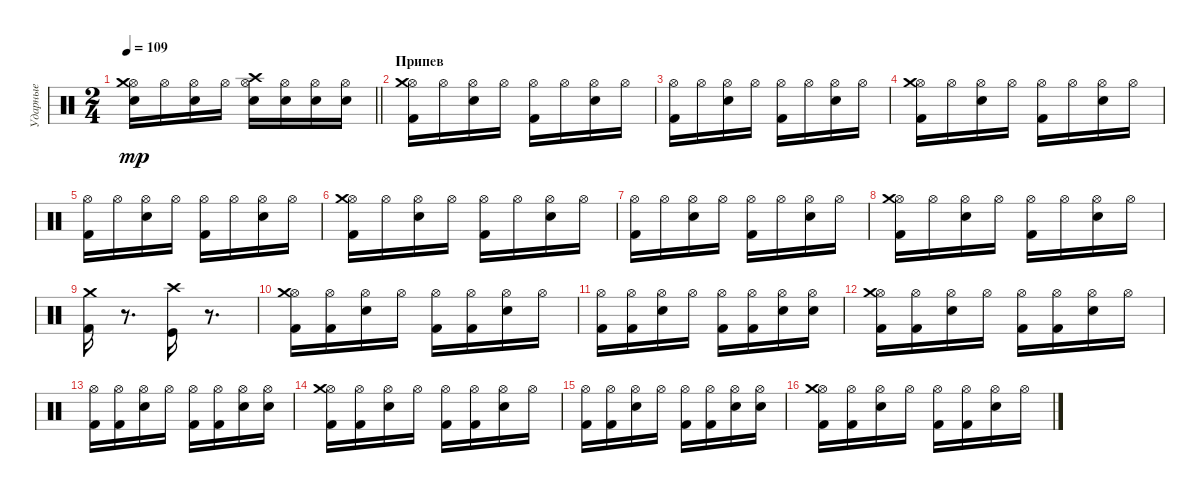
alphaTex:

\track ("Ударные" "Ударные") {instrument percussion}
\staff {score}
\articulation defaults
\ts (2 4)
\tempo 109
\clef neutral
\barLineRight lightlight
\ks c
("Snare (hit) 2" "Hi-Hat (open)" "Crash medium (hit)").16{dy mp} "Hi-Hat (open)".16 ("Electric Snare (hit)" "Hi-Hat (open)").16 "Hi-Hat (open)".16 ("Snare (hit) 2" "Hi-Hat (open)" "Crash high (hit)").16 ("Electric Snare (hit)" "Hi-Hat (open)").16 ("Electric Snare (hit)" "Hi-Hat (open)").16 ("Electric Snare (hit)" "Hi-Hat (open)").16 |
\section ("" "Припев")
("Kick (hit) 2" "Hi-Hat (open)" "Crash medium (hit)").16 "Hi-Hat (open)".16 ("Electric Snare (hit)" "Hi-Hat (open)").16 "Hi-Hat (open)".16 ("Kick (hit) 2" "Hi-Hat (open)").16 "Hi-Hat (open)".16 ("Electric Snare (hit)" "Hi-Hat (open)").16 "Hi-Hat (open)".16 |
("Kick (hit) 2" "Hi-Hat (open)").16 "Hi-Hat (open)".16 ("Electric Snare (hit)" "Hi-Hat (open)").16 "Hi-Hat (open)".16 ("Kick (hit) 2" "Hi-Hat (open)").16 "Hi-Hat (open)".16 ("Electric Snare (hit)" "Hi-Hat (open)").16 "Hi-Hat (open)".16 |
("Kick (hit) 2" "Hi-Hat (open)" "Crash medium (hit)").16 "Hi-Hat (open)".16 ("Electric Snare (hit)" "Hi-Hat (open)").16 "Hi-Hat (open)".16 ("Kick (hit) 2" "Hi-Hat (open)").16 "Hi-Hat (open)".16 ("Electric Snare (hit)" "Hi-Hat (open)").16 "Hi-Hat (open)".16 |
("Kick (hit) 2" "Hi-Hat (open)").16 "Hi-Hat (open)".16 ("Electric Snare (hit)" "Hi-Hat (open)").16 "Hi-Hat (open)".16 ("Kick (hit) 2" "Hi-Hat (open)").16 "Hi-Hat (open)".16 ("Electric Snare (hit)" "Hi-Hat (open)").16 "Hi-Hat (open)".16 |
("Kick (hit) 2" "Hi-Hat (open)" "Crash medium (hit)").16 "Hi-Hat (open)".16 ("Electric Snare (hit)" "Hi-Hat (open)").16 "Hi-Hat (open)".16 ("Kick (hit) 2" "Hi-Hat (open)").16 "Hi-Hat (open)".16 ("Electric Snare (hit)" "Hi-Hat (open)").16 "Hi-Hat (open)".16 |
("Kick (hit) 2" "Hi-Hat (open)").16 "Hi-Hat (open)".16 ("Electric Snare (hit)" "Hi-Hat (open)").16 "Hi-Hat (open)".16 ("Kick (hit) 2" "Hi-Hat (open)").16 "Hi-Hat (open)".16 ("Electric Snare (hit)" "Hi-Hat (open)").16 "Hi-Hat (open)".16 |
("Kick (hit) 2" "Hi-Hat (open)" "Crash medium (hit)").16 "Hi-Hat (open)".16 ("Electric Snare (hit)" "Hi-Hat (open)").16 "Hi-Hat (open)".16 ("Kick (hit) 2" "Hi-Hat (open)").16 "Hi-Hat (open)".16 ("Electric Snare (hit)" "Hi-Hat (open)").16 "Hi-Hat (open)".16 |
("Kick (hit) 2" "Crash medium (hit)").16 r.8{d} ("Kick (hit)" "Crash high (hit)").16 r.8{d} |
("Kick (hit) 2" "Hi-Hat (open)" "Crash medium (hit)").16 ("Kick (hit) 2" "Hi-Hat (open)").16 ("Electric Snare (hit)" "Hi-Hat (open)").16 "Hi-Hat (open)".16 ("Kick (hit) 2" "Hi-Hat (open)").16 ("Kick (hit) 2" "Hi-Hat (open)").16 ("Electric Snare (hit)" "Hi-Hat (open)").16 "Hi-Hat (open)".16 |
("Kick (hit) 2" "Hi-Hat (open)").16 ("Kick (hit) 2" "Hi-Hat (open)").16 ("Electric Snare (hit)" "Hi-Hat (open)").16 "Hi-Hat (open)".16 ("Kick (hit) 2" "Hi-Hat (open)").16 ("Kick (hit) 2" "Hi-Hat (open)").16 ("Electric Snare (hit)" "Hi-Hat (open)").16 ("Electric Snare (hit)" "Hi-Hat (open)").16 |
("Kick (hit) 2" "Hi-Hat (open)" "Crash medium (hit)").16 ("Kick (hit) 2" "Hi-Hat (open)").16 ("Electric Snare (hit)" "Hi-Hat (open)").16 "Hi-Hat (open)".16 ("Kick (hit) 2" "Hi-Hat (open)").16 ("Kick (hit) 2" "Hi-Hat (open)").16 ("Electric Snare (hit)" "Hi-Hat (open)").16 "Hi-Hat (open)".16 |
("Kick (hit) 2" "Hi-Hat (open)").16 ("Kick (hit) 2" "Hi-Hat (open)").16 ("Electric Snare (hit)" "Hi-Hat (open)").16 "Hi-Hat (open)".16 ("Kick (hit) 2" "Hi-Hat (open)").16 ("Kick (hit) 2" "Hi-Hat (open)").16 ("Electric Snare (hit)" "Hi-Hat (open)").16 ("Electric Snare (hit)" "Hi-Hat (open)").16 |
("Kick (hit) 2" "Hi-Hat (open)" "Crash medium (hit)").16 ("Kick (hit) 2" "Hi-Hat (open)").16 ("Electric Snare (hit)" "Hi-Hat (open)").16 "Hi-Hat (open)".16 ("Kick (hit) 2" "Hi-Hat (open)").16 ("Kick (hit) 2" "Hi-Hat (open)").16 ("Electric Snare (hit)" "Hi-Hat (open)").16 "Hi-Hat (open)".16 |
("Kick (hit) 2" "Hi-Hat (open)").16 ("Kick (hit) 2" "Hi-Hat (open)").16 ("Electric Snare (hit)" "Hi-Hat (open)").16 "Hi-Hat (open)".16 ("Kick (hit) 2" "Hi-Hat (open)").16 ("Kick (hit) 2" "Hi-Hat (open)").16 ("Electric Snare (hit)" "Hi-Hat (open)").16 ("Electric Snare (hit)" "Hi-Hat (open)").16 |
("Kick (hit) 2" "Hi-Hat (open)" "Crash medium (hit)").16 ("Kick (hit) 2" "Hi-Hat (open)").16 ("Electric Snare (hit)" "Hi-Hat (open)").16 "Hi-Hat (open)".16 ("Kick (hit) 2" "Hi-Hat (open)").16 ("Kick (hit) 2" "Hi-Hat (open)").16 ("Electric Snare (hit)" "Hi-Hat (open)").16 "Hi-Hat (open)".16
